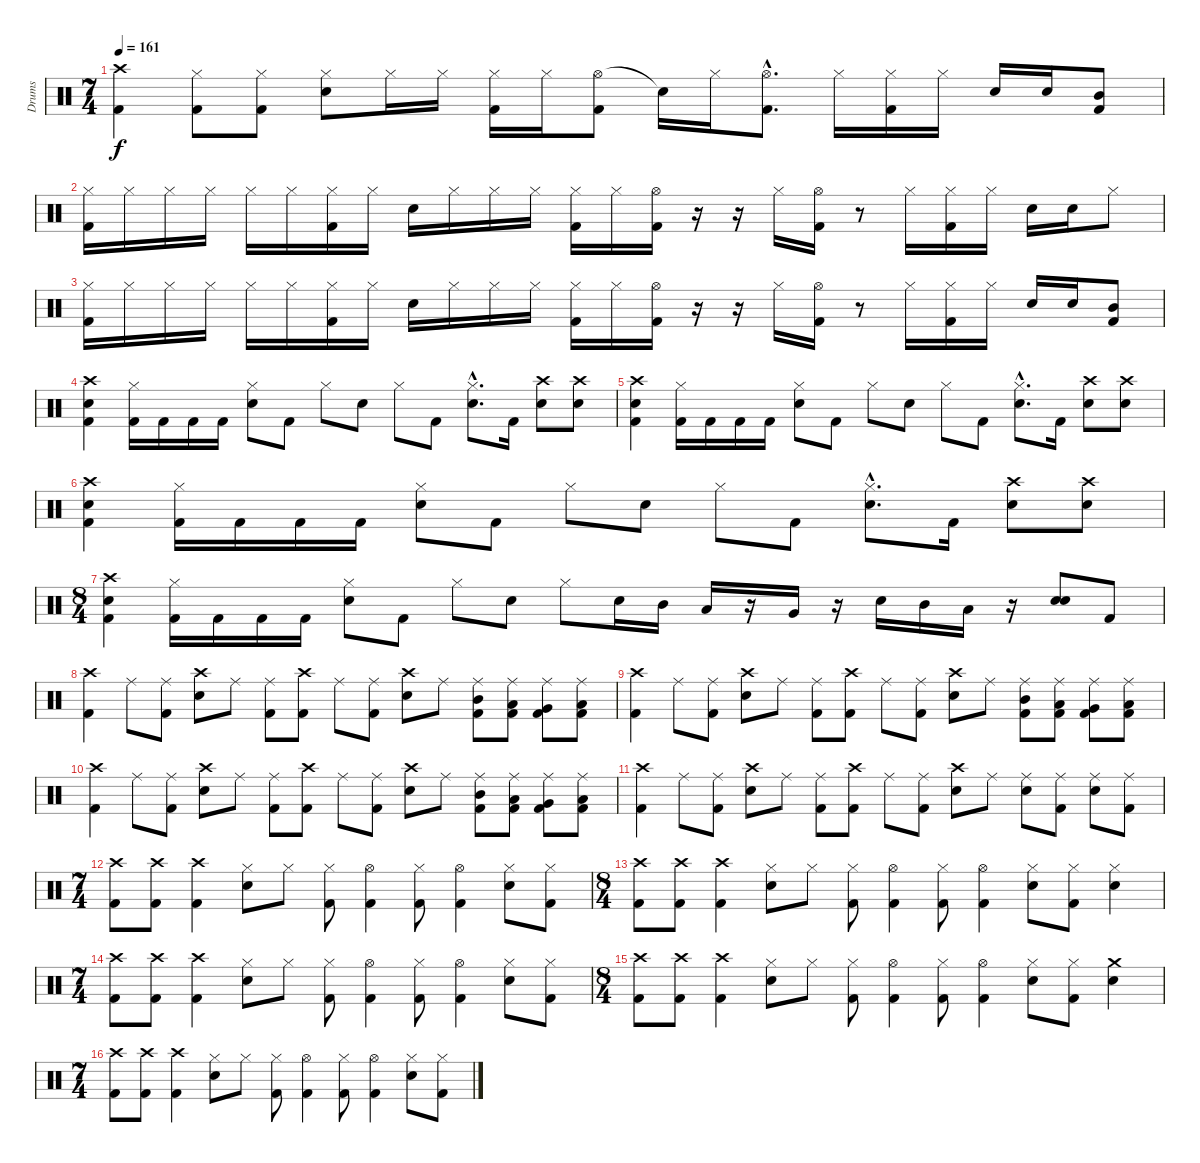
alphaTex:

\track ("Drums" "Drums") {instrument percussion}
\staff {score}
\articulation defaults
\ts (7 4)
\tempo 161
\clef neutral
\ks c
("Crash high (hit)" "Kick (hit) 2").4{dy f} ("Hi-Hat (closed)" "Kick (hit) 2").8 ("Hi-Hat (closed)" "Kick (hit) 2").8 ("Hi-Hat (closed)" "Snare (hit) 2").8 "Hi-Hat (closed)".16 "Hi-Hat (closed)".16 ("Hi-Hat (closed)" "Kick (hit) 2").16 "Hi-Hat (closed)".16 ("Hi-Hat (open)" "Kick (hit) 2").8 "Snare (hit)"{t}.16 "Hi-Hat (closed)".16 ("Hi-Hat (open)"{hac} "Kick (hit) 2"{hac}).8{d} "Hi-Hat (closed)".16 ("Hi-Hat (closed)" "Kick (hit) 2").16 "Hi-Hat (closed)".16 "Snare (hit) 2".16 "Snare (hit) 2".16 ("Mid Tom (hit)" "Kick (hit) 2").8 |
("Hi-Hat (closed)" "Kick (hit) 2").16 "Hi-Hat (closed)".16 "Hi-Hat (closed)".16 "Hi-Hat (closed)".16 "Hi-Hat (closed)".16 "Hi-Hat (closed)".16 ("Hi-Hat (closed)" "Kick (hit) 2").16 "Hi-Hat (closed)".16 "Snare (hit) 2".16 "Hi-Hat (closed)".16 "Hi-Hat (closed)".16 "Hi-Hat (closed)".16 ("Hi-Hat (closed)" "Kick (hit) 2").16 "Hi-Hat (closed)".16 ("Hi-Hat (open)" "Kick (hit) 2").16 r.16 r.16 "Hi-Hat (closed)".16 ("Hi-Hat (open)" "Kick (hit) 2").16 r.8 "Hi-Hat (closed)".16 ("Hi-Hat (closed)" "Kick (hit) 2").16 "Hi-Hat (closed)".16 "Snare (hit) 2".16 "Snare (hit) 2".16 "Hi-Hat (closed)".8 |
("Hi-Hat (closed)" "Kick (hit) 2").16 "Hi-Hat (closed)".16 "Hi-Hat (closed)".16 "Hi-Hat (closed)".16 "Hi-Hat (closed)".16 "Hi-Hat (closed)".16 ("Hi-Hat (closed)" "Kick (hit) 2").16 "Hi-Hat (closed)".16 "Snare (hit) 2".16 "Hi-Hat (closed)".16 "Hi-Hat (closed)".16 "Hi-Hat (closed)".16 ("Hi-Hat (closed)" "Kick (hit) 2").16 "Hi-Hat (closed)".16 ("Hi-Hat (open)" "Kick (hit) 2").16 r.16 r.16 "Hi-Hat (closed)".16 ("Hi-Hat (open)" "Kick (hit) 2").16 r.8 "Hi-Hat (closed)".16 ("Hi-Hat (closed)" "Kick (hit) 2").16 "Hi-Hat (closed)".16 "Snare (hit) 2".16 "Snare (hit) 2".16 ("Mid Tom (hit)" "Kick (hit) 2").8 |
("Crash high (hit)" "Snare (hit) 2" "Kick (hit) 2").4 ("Hi-Hat (closed)" "Kick (hit) 2").16 "Kick (hit) 2".16 "Kick (hit) 2".16 "Kick (hit) 2".16 ("Hi-Hat (closed)" "Snare (hit) 2").8 "Kick (hit) 2".8 "Hi-Hat (closed)".8 "Snare (hit) 2".8 "Hi-Hat (closed)".8 "Kick (hit) 2".8 ("Hi-Hat (closed)"{hac} "Snare (hit) 2"{hac}).8{d} "Kick (hit) 2".16 ("Crash high (hit)" "Snare (hit) 2").8 ("Crash high (hit)" "Snare (hit) 2").8 |
("Crash high (hit)" "Snare (hit) 2" "Kick (hit) 2").4 ("Hi-Hat (closed)" "Kick (hit) 2").16 "Kick (hit) 2".16 "Kick (hit) 2".16 "Kick (hit) 2".16 ("Hi-Hat (closed)" "Snare (hit) 2").8 "Kick (hit) 2".8 "Hi-Hat (closed)".8 "Snare (hit) 2".8 "Hi-Hat (closed)".8 "Kick (hit) 2".8 ("Hi-Hat (closed)"{hac} "Snare (hit) 2"{hac}).8{d} "Kick (hit) 2".16 ("Crash high (hit)" "Snare (hit) 2").8 ("Crash high (hit)" "Snare (hit) 2").8 |
("Crash high (hit)" "Snare (hit) 2" "Kick (hit) 2").4 ("Hi-Hat (closed)" "Kick (hit) 2").16 "Kick (hit) 2".16 "Kick (hit) 2".16 "Kick (hit) 2".16 ("Hi-Hat (closed)" "Snare (hit) 2").8 "Kick (hit) 2".8 "Hi-Hat (closed)".8 "Snare (hit) 2".8 "Hi-Hat (closed)".8 "Kick (hit) 2".8 ("Hi-Hat (closed)"{hac} "Snare (hit) 2"{hac}).8{d} "Kick (hit) 2".16 ("Crash high (hit)" "Snare (hit) 2").8 ("Crash high (hit)" "Snare (hit) 2").8 |
\ts (8 4)
("Crash high (hit)" "Snare (hit) 2" "Kick (hit) 2").4 ("Hi-Hat (closed)" "Kick (hit) 2").16 "Kick (hit) 2".16 "Kick (hit) 2".16 "Kick (hit) 2".16 ("Hi-Hat (closed)" "Snare (hit) 2").8 "Kick (hit) 2".8 "Hi-Hat (closed)".8 "Snare (hit) 2".8 "Hi-Hat (closed)".8 "Snare (hit) 2".16 "Mid Tom (hit)".16 "Low Tom (hit)".16 r.16 "Very Low Tom (hit)".16 r.16 "Snare (hit) 2".16 "Mid Tom (hit)".16 "Low Tom (hit)".16 r.16 ("Snare (hit) 2" "Snare (hit) 2").8 "Kick (hit) 2".8 |
("Crash high (hit)" "Kick (hit) 2").4 "Ride (middle)".8 ("Ride (middle)" "Kick (hit) 2").8 ("Crash high (hit)" "Snare (hit) 2").8 "Ride (middle)".8 ("Ride (middle)" "Kick (hit) 2").8 ("Crash high (hit)" "Kick (hit) 2").8 "Ride (middle)".8 ("Ride (middle)" "Kick (hit) 2").8 ("Crash high (hit)" "Snare (hit) 2").8 "Ride (middle)".8 ("Ride (middle)" "Mid Tom (hit)" "Kick (hit) 2").8 ("Ride (middle)" "Low Tom (hit)" "Kick (hit) 2").8 ("Ride (middle)" "Very Low Tom (hit)" "Kick (hit) 2").8 ("Ride (middle)" "Low Floor Tom (hit)" "Kick (hit) 2").8 |
("Crash high (hit)" "Kick (hit) 2").4 "Ride (middle)".8 ("Ride (middle)" "Kick (hit) 2").8 ("Crash high (hit)" "Snare (hit) 2").8 "Ride (middle)".8 ("Ride (middle)" "Kick (hit) 2").8 ("Crash high (hit)" "Kick (hit) 2").8 "Ride (middle)".8 ("Ride (middle)" "Kick (hit) 2").8 ("Crash high (hit)" "Snare (hit) 2").8 "Ride (middle)".8 ("Ride (middle)" "Mid Tom (hit)" "Kick (hit) 2").8 ("Ride (middle)" "Low Tom (hit)" "Kick (hit) 2").8 ("Ride (middle)" "Very Low Tom (hit)" "Kick (hit) 2").8 ("Ride (middle)" "Low Floor Tom (hit)" "Kick (hit) 2").8 |
("Crash high (hit)" "Kick (hit) 2").4 "Ride (middle)".8 ("Ride (middle)" "Kick (hit) 2").8 ("Crash high (hit)" "Snare (hit) 2").8 "Ride (middle)".8 ("Ride (middle)" "Kick (hit) 2").8 ("Crash high (hit)" "Kick (hit) 2").8 "Ride (middle)".8 ("Ride (middle)" "Kick (hit) 2").8 ("Crash high (hit)" "Snare (hit) 2").8 "Ride (middle)".8 ("Ride (middle)" "Mid Tom (hit)" "Kick (hit) 2").8 ("Ride (middle)" "Low Tom (hit)" "Kick (hit) 2").8 ("Ride (middle)" "Very Low Tom (hit)" "Kick (hit) 2").8 ("Ride (middle)" "Low Floor Tom (hit)" "Kick (hit) 2").8 |
("Crash high (hit)" "Kick (hit) 2").4 "Ride (middle)".8 ("Ride (middle)" "Kick (hit) 2").8 ("Crash high (hit)" "Snare (hit) 2").8 "Ride (middle)".8 ("Ride (middle)" "Kick (hit) 2").8 ("Crash high (hit)" "Kick (hit) 2").8 "Ride (middle)".8 ("Ride (middle)" "Kick (hit) 2").8 ("Crash high (hit)" "Snare (hit) 2").8 "Ride (middle)".8 ("Ride (middle)" "Snare (hit) 2").8 ("Ride (middle)" "Kick (hit) 2").8 ("Ride (middle)" "Snare (hit) 2").8 ("Ride (middle)" "Kick (hit) 2").8 |
\ts (7 4)
("Crash high (hit)" "Kick (hit) 2").8 ("Crash high (hit)" "Kick (hit) 2").8 ("Crash high (hit)" "Kick (hit) 2").4 ("Hi-Hat (closed)" "Snare (hit) 2").8 "Hi-Hat (closed)".8 ("Hi-Hat (closed)" "Kick (hit) 2").8 ("Hi-Hat (open)" "Kick (hit) 2").4 ("Hi-Hat (closed)" "Kick (hit) 2").8 ("Hi-Hat (open)" "Kick (hit) 2").4 ("Hi-Hat (closed)" "Snare (hit) 2").8 ("Hi-Hat (closed)" "Kick (hit) 2").8 |
\ts (8 4)
("Crash high (hit)" "Kick (hit) 2").8 ("Crash high (hit)" "Kick (hit) 2").8 ("Crash high (hit)" "Kick (hit) 2").4 ("Hi-Hat (closed)" "Snare (hit) 2").8 "Hi-Hat (closed)".8 ("Hi-Hat (closed)" "Kick (hit) 2").8 ("Hi-Hat (open)" "Kick (hit) 2").4 ("Hi-Hat (closed)" "Kick (hit) 2").8 ("Hi-Hat (open)" "Kick (hit) 2").4 ("Hi-Hat (closed)" "Snare (hit) 2").8 ("Hi-Hat (closed)" "Kick (hit) 2").8 ("Hi-Hat (closed)" "Snare (hit) 2").4 |
\ts (7 4)
("Crash high (hit)" "Kick (hit) 2").8 ("Crash high (hit)" "Kick (hit) 2").8 ("Crash high (hit)" "Kick (hit) 2").4 ("Hi-Hat (closed)" "Snare (hit) 2").8 "Hi-Hat (closed)".8 ("Hi-Hat (closed)" "Kick (hit) 2").8 ("Hi-Hat (open)" "Kick (hit) 2").4 ("Hi-Hat (closed)" "Kick (hit) 2").8 ("Hi-Hat (open)" "Kick (hit) 2").4 ("Hi-Hat (closed)" "Snare (hit) 2").8 ("Hi-Hat (closed)" "Kick (hit) 2").8 |
\ts (8 4)
("Crash high (hit)" "Kick (hit) 2").8 ("Crash high (hit)" "Kick (hit) 2").8 ("Crash high (hit)" "Kick (hit) 2").4 ("Hi-Hat (closed)" "Snare (hit) 2").8 "Hi-Hat (closed)".8 ("Hi-Hat (closed)" "Kick (hit) 2").8 ("Hi-Hat (open)" "Kick (hit) 2").4 ("Hi-Hat (closed)" "Kick (hit) 2").8 ("Hi-Hat (open)" "Kick (hit) 2").4 ("Hi-Hat (closed)" "Snare (hit) 2").8 ("Hi-Hat (closed)" "Kick (hit) 2").8 ("Crash medium (hit)" "Snare (hit) 2").4 |
\ts (7 4)
("Crash high (hit)" "Kick (hit) 2").8 ("Crash high (hit)" "Kick (hit) 2").8 ("Crash high (hit)" "Kick (hit) 2").4 ("Hi-Hat (closed)" "Snare (hit) 2").8 "Hi-Hat (closed)".8 ("Hi-Hat (closed)" "Kick (hit) 2").8 ("Hi-Hat (open)" "Kick (hit) 2").4 ("Hi-Hat (closed)" "Kick (hit) 2").8 ("Hi-Hat (open)" "Kick (hit) 2").4 ("Hi-Hat (closed)" "Snare (hit) 2").8 ("Hi-Hat (closed)" "Kick (hit) 2").8
